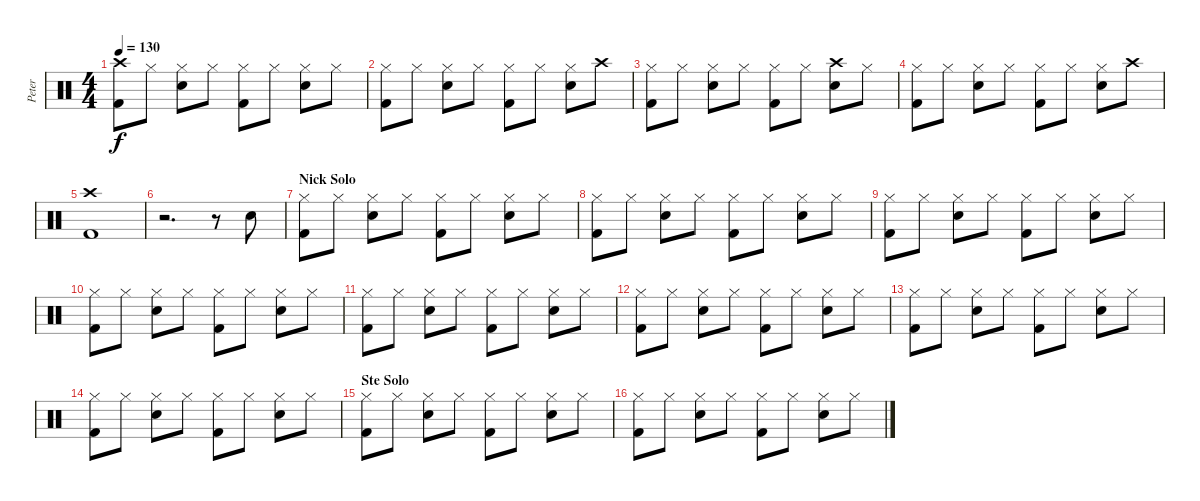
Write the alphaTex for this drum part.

\track ("Peter" "Peter") {instrument percussion}
\staff {score}
\articulation defaults
\ts (4 4)
\tempo 130
\clef neutral
\ks c
("Crash high (hit)" "Kick (hit) 2").8{dy f} "Hi-Hat (closed)".8 ("Hi-Hat (closed)" "Snare (hit) 2").8 "Hi-Hat (closed)".8 ("Hi-Hat (closed)" "Kick (hit) 2").8 "Hi-Hat (closed)".8 ("Hi-Hat (closed)" "Snare (hit) 2").8 "Hi-Hat (closed)".8 |
("Hi-Hat (closed)" "Kick (hit) 2").8 "Hi-Hat (closed)".8 ("Hi-Hat (closed)" "Snare (hit) 2").8 "Hi-Hat (closed)".8 ("Hi-Hat (closed)" "Kick (hit) 2").8 "Hi-Hat (closed)".8 ("Hi-Hat (closed)" "Snare (hit) 2").8 "Crash high (hit)".8 |
("Hi-Hat (closed)" "Kick (hit) 2").8 "Hi-Hat (closed)".8 ("Hi-Hat (closed)" "Snare (hit) 2").8 "Hi-Hat (closed)".8 ("Hi-Hat (closed)" "Kick (hit) 2").8 "Hi-Hat (closed)".8 ("Crash high (hit)" "Snare (hit) 2").8 "Hi-Hat (closed)".8 |
("Hi-Hat (closed)" "Kick (hit) 2").8 "Hi-Hat (closed)".8 ("Hi-Hat (closed)" "Snare (hit) 2").8 "Hi-Hat (closed)".8 ("Hi-Hat (closed)" "Kick (hit) 2").8 "Hi-Hat (closed)".8 ("Hi-Hat (closed)" "Snare (hit) 2").8 "Crash high (hit)".8 |
("Crash high (hit)" "Kick (hit) 2").1 |
r.2{d} r.8 "Electric Snare (hit)".8 |
\section ("" "Nick Solo")
("Hi-Hat (closed)" "Kick (hit) 2").8 "Hi-Hat (closed)".8 ("Hi-Hat (closed)" "Electric Snare (hit)").8 "Hi-Hat (closed)".8 ("Hi-Hat (closed)" "Kick (hit) 2").8 "Hi-Hat (closed)".8 ("Hi-Hat (closed)" "Electric Snare (hit)").8 "Hi-Hat (closed)".8 |
("Hi-Hat (closed)" "Kick (hit) 2").8 "Hi-Hat (closed)".8 ("Hi-Hat (closed)" "Electric Snare (hit)").8 "Hi-Hat (closed)".8 ("Hi-Hat (closed)" "Kick (hit) 2").8 "Hi-Hat (closed)".8 ("Hi-Hat (closed)" "Electric Snare (hit)").8 "Hi-Hat (closed)".8 |
("Hi-Hat (closed)" "Kick (hit) 2").8 "Hi-Hat (closed)".8 ("Hi-Hat (closed)" "Electric Snare (hit)").8 "Hi-Hat (closed)".8 ("Hi-Hat (closed)" "Kick (hit) 2").8 "Hi-Hat (closed)".8 ("Hi-Hat (closed)" "Electric Snare (hit)").8 "Hi-Hat (closed)".8 |
("Hi-Hat (closed)" "Kick (hit) 2").8 "Hi-Hat (closed)".8 ("Hi-Hat (closed)" "Electric Snare (hit)").8 "Hi-Hat (closed)".8 ("Hi-Hat (closed)" "Kick (hit) 2").8 "Hi-Hat (closed)".8 ("Hi-Hat (closed)" "Electric Snare (hit)").8 "Hi-Hat (closed)".8 |
("Hi-Hat (closed)" "Kick (hit) 2").8 "Hi-Hat (closed)".8 ("Hi-Hat (closed)" "Electric Snare (hit)").8 "Hi-Hat (closed)".8 ("Hi-Hat (closed)" "Kick (hit) 2").8 "Hi-Hat (closed)".8 ("Hi-Hat (closed)" "Electric Snare (hit)").8 "Hi-Hat (closed)".8 |
("Hi-Hat (closed)" "Kick (hit) 2").8 "Hi-Hat (closed)".8 ("Hi-Hat (closed)" "Electric Snare (hit)").8 "Hi-Hat (closed)".8 ("Hi-Hat (closed)" "Kick (hit) 2").8 "Hi-Hat (closed)".8 ("Hi-Hat (closed)" "Electric Snare (hit)").8 "Hi-Hat (closed)".8 |
("Hi-Hat (closed)" "Kick (hit) 2").8 "Hi-Hat (closed)".8 ("Hi-Hat (closed)" "Electric Snare (hit)").8 "Hi-Hat (closed)".8 ("Hi-Hat (closed)" "Kick (hit) 2").8 "Hi-Hat (closed)".8 ("Hi-Hat (closed)" "Electric Snare (hit)").8 "Hi-Hat (closed)".8 |
("Hi-Hat (closed)" "Kick (hit) 2").8 "Hi-Hat (closed)".8 ("Hi-Hat (closed)" "Electric Snare (hit)").8 "Hi-Hat (closed)".8 ("Hi-Hat (closed)" "Kick (hit) 2").8 "Hi-Hat (closed)".8 ("Hi-Hat (closed)" "Electric Snare (hit)").8 "Hi-Hat (closed)".8 |
\section ("" "Ste Solo")
("Hi-Hat (closed)" "Kick (hit) 2").8 "Hi-Hat (closed)".8 ("Hi-Hat (closed)" "Electric Snare (hit)").8 "Hi-Hat (closed)".8 ("Hi-Hat (closed)" "Kick (hit) 2").8 "Hi-Hat (closed)".8 ("Hi-Hat (closed)" "Electric Snare (hit)").8 "Hi-Hat (closed)".8 |
("Hi-Hat (closed)" "Kick (hit) 2").8 "Hi-Hat (closed)".8 ("Hi-Hat (closed)" "Electric Snare (hit)").8 "Hi-Hat (closed)".8 ("Hi-Hat (closed)" "Kick (hit) 2").8 "Hi-Hat (closed)".8 ("Hi-Hat (closed)" "Electric Snare (hit)").8 "Hi-Hat (closed)".8
